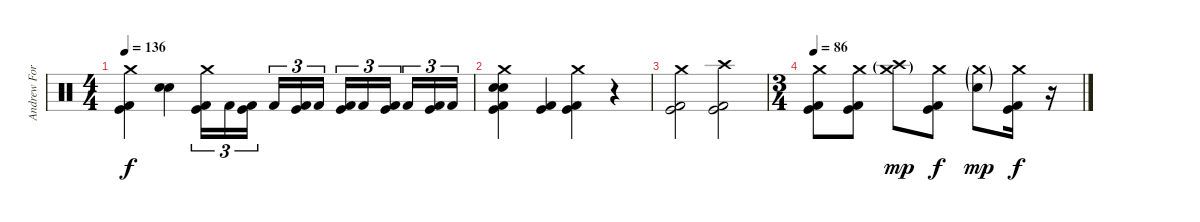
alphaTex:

\track ("Andrew Forsman" "Andrew For") {instrument percussion}
\staff {score}
\articulation defaults
\ts (4 4)
\tempo 136
\clef neutral
\ks c
("Crash medium (hit)" "Kick (hit)" "Kick (hit) 2").4{dy f} ("Electric Snare (hit)" "Electric Snare (hit)").4 ("Crash medium (hit)" "Kick (hit)" "Kick (hit) 2").16{tu (3 2)} "Kick (hit) 2".16{tu (3 2)} ("Kick (hit)" "Kick (hit) 2").16{tu (3 2) beam splitsecondary} "Kick (hit) 2".16{tu (3 2)} ("Kick (hit)" "Kick (hit) 2").16{tu (3 2)} "Kick (hit) 2".16{tu (3 2)} ("Kick (hit)" "Kick (hit) 2").16{tu (3 2)} "Kick (hit) 2".16{tu (3 2)} ("Kick (hit)" "Kick (hit) 2").16{tu (3 2) beam splitsecondary} "Kick (hit) 2".16{tu (3 2)} ("Kick (hit)" "Kick (hit) 2").16{tu (3 2)} "Kick (hit) 2".16{tu (3 2)} |
("Crash medium (hit)" "Electric Snare (hit)" "Electric Snare (hit)" "Kick (hit)" "Kick (hit) 2").4 ("Kick (hit)" "Kick (hit) 2").4 ("Crash medium (hit)" "Kick (hit)" "Kick (hit) 2").4 r.4 |
("Crash medium (hit)" "Kick (hit)" "Kick (hit) 2").2 ("Crash high (hit)" "Kick (hit)" "Kick (hit) 2").2 |
\ts (3 4)
\tempo 86
("Crash medium (hit)" "Kick (hit)" "Kick (hit) 2").8 ("Crash medium (hit)" "Kick (hit)" "Kick (hit) 2").8 ("Crash medium (hit)"{g} "Crash high (hit)"{g}).8{dy mp} ("Crash medium (hit)" "Kick (hit)" "Kick (hit) 2").8{dy f} ("Crash medium (hit)"{g} "Snare (hit)"{g}).8{dy mp} ("Crash medium (hit)" "Kick (hit)" "Kick (hit) 2").16{dy f} r.16
